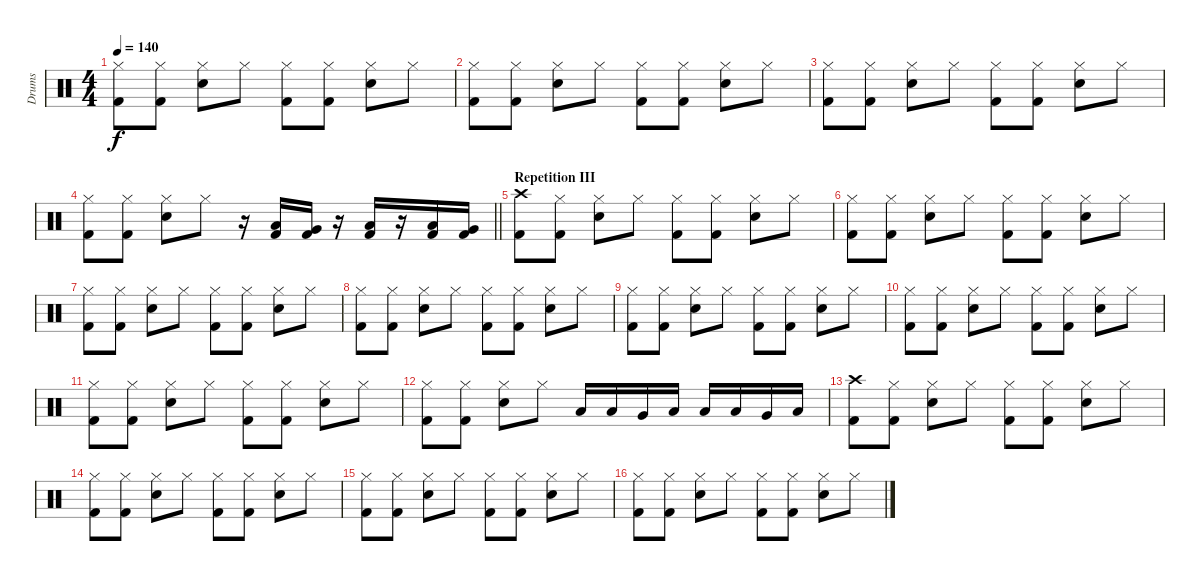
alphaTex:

\track ("Drums" "Drums") {instrument percussion}
\staff {score}
\articulation defaults
\ts (4 4)
\tempo 140
\clef neutral
\ks c
("Hi-Hat (closed)" "Kick (hit) 2").8{dy f} ("Hi-Hat (closed)" "Kick (hit) 2").8 ("Hi-Hat (closed)" "Snare (hit) 2").8 "Hi-Hat (closed)".8 ("Hi-Hat (closed)" "Kick (hit) 2").8 ("Hi-Hat (closed)" "Kick (hit) 2").8 ("Hi-Hat (closed)" "Snare (hit) 2").8 "Hi-Hat (closed)".8 |
("Hi-Hat (closed)" "Kick (hit) 2").8 ("Hi-Hat (closed)" "Kick (hit) 2").8 ("Hi-Hat (closed)" "Snare (hit) 2").8 "Hi-Hat (closed)".8 ("Hi-Hat (closed)" "Kick (hit) 2").8 ("Hi-Hat (closed)" "Kick (hit) 2").8 ("Hi-Hat (closed)" "Snare (hit) 2").8 "Hi-Hat (closed)".8 |
("Hi-Hat (closed)" "Kick (hit) 2").8 ("Hi-Hat (closed)" "Kick (hit) 2").8 ("Hi-Hat (closed)" "Snare (hit) 2").8 "Hi-Hat (closed)".8 ("Hi-Hat (closed)" "Kick (hit) 2").8 ("Hi-Hat (closed)" "Kick (hit) 2").8 ("Hi-Hat (closed)" "Snare (hit) 2").8 "Hi-Hat (closed)".8 |
\barLineRight lightlight
("Hi-Hat (closed)" "Kick (hit) 2").8 ("Hi-Hat (closed)" "Kick (hit) 2").8 ("Hi-Hat (closed)" "Snare (hit) 2").8 "Hi-Hat (closed)".8 r.16 ("Low Tom (hit)" "Kick (hit) 2").16 ("Very Low Tom (hit)" "Kick (hit) 2").16 r.16 ("Low Tom (hit)" "Kick (hit) 2").16 r.16 ("Low Tom (hit)" "Kick (hit) 2").16 ("Very Low Tom (hit)" "Kick (hit) 2").16 |
\section ("" "Repetition III")
("Crash high (hit)" "Kick (hit) 2").8 ("Hi-Hat (closed)" "Kick (hit) 2").8 ("Hi-Hat (closed)" "Snare (hit) 2").8 "Hi-Hat (closed)".8 ("Hi-Hat (closed)" "Kick (hit) 2").8 ("Hi-Hat (closed)" "Kick (hit) 2").8 ("Hi-Hat (closed)" "Snare (hit) 2").8 "Hi-Hat (closed)".8 |
("Hi-Hat (closed)" "Kick (hit) 2").8 ("Hi-Hat (closed)" "Kick (hit) 2").8 ("Hi-Hat (closed)" "Snare (hit) 2").8 "Hi-Hat (closed)".8 ("Hi-Hat (closed)" "Kick (hit) 2").8 ("Hi-Hat (closed)" "Kick (hit) 2").8 ("Hi-Hat (closed)" "Snare (hit) 2").8 "Hi-Hat (closed)".8 |
("Hi-Hat (closed)" "Kick (hit) 2").8 ("Hi-Hat (closed)" "Kick (hit) 2").8 ("Hi-Hat (closed)" "Snare (hit) 2").8 "Hi-Hat (closed)".8 ("Hi-Hat (closed)" "Kick (hit) 2").8 ("Hi-Hat (closed)" "Kick (hit) 2").8 ("Hi-Hat (closed)" "Snare (hit) 2").8 "Hi-Hat (closed)".8 |
("Hi-Hat (closed)" "Kick (hit) 2").8 ("Hi-Hat (closed)" "Kick (hit) 2").8 ("Hi-Hat (closed)" "Snare (hit) 2").8 "Hi-Hat (closed)".8 ("Hi-Hat (closed)" "Kick (hit) 2").8 ("Hi-Hat (closed)" "Kick (hit) 2").8 ("Hi-Hat (closed)" "Snare (hit) 2").8 "Hi-Hat (closed)".8 |
("Hi-Hat (closed)" "Kick (hit) 2").8 ("Hi-Hat (closed)" "Kick (hit) 2").8 ("Hi-Hat (closed)" "Snare (hit) 2").8 "Hi-Hat (closed)".8 ("Hi-Hat (closed)" "Kick (hit) 2").8 ("Hi-Hat (closed)" "Kick (hit) 2").8 ("Hi-Hat (closed)" "Snare (hit) 2").8 "Hi-Hat (closed)".8 |
("Hi-Hat (closed)" "Kick (hit) 2").8 ("Hi-Hat (closed)" "Kick (hit) 2").8 ("Hi-Hat (closed)" "Snare (hit) 2").8 "Hi-Hat (closed)".8 ("Hi-Hat (closed)" "Kick (hit) 2").8 ("Hi-Hat (closed)" "Kick (hit) 2").8 ("Hi-Hat (closed)" "Snare (hit) 2").8 "Hi-Hat (closed)".8 |
("Hi-Hat (closed)" "Kick (hit) 2").8 ("Hi-Hat (closed)" "Kick (hit) 2").8 ("Hi-Hat (closed)" "Snare (hit) 2").8 "Hi-Hat (closed)".8 ("Hi-Hat (closed)" "Kick (hit) 2").8 ("Hi-Hat (closed)" "Kick (hit) 2").8 ("Hi-Hat (closed)" "Snare (hit) 2").8 "Hi-Hat (closed)".8 |
("Hi-Hat (closed)" "Kick (hit) 2").8 ("Hi-Hat (closed)" "Kick (hit) 2").8 ("Hi-Hat (closed)" "Snare (hit) 2").8 "Hi-Hat (closed)".8 "Low Tom (hit)".16 "Low Tom (hit)".16 "Very Low Tom (hit)".16 "Low Floor Tom (hit)".16 "Low Tom (hit)".16 "Low Tom (hit)".16 "Very Low Tom (hit)".16 "Low Floor Tom (hit)".16 |
("Crash high (hit)" "Kick (hit) 2").8 ("Hi-Hat (closed)" "Kick (hit) 2").8 ("Hi-Hat (closed)" "Snare (hit) 2").8 "Hi-Hat (closed)".8 ("Hi-Hat (closed)" "Kick (hit) 2").8 ("Hi-Hat (closed)" "Kick (hit) 2").8 ("Hi-Hat (closed)" "Snare (hit) 2").8 "Hi-Hat (closed)".8 |
("Hi-Hat (closed)" "Kick (hit) 2").8 ("Hi-Hat (closed)" "Kick (hit) 2").8 ("Hi-Hat (closed)" "Snare (hit) 2").8 "Hi-Hat (closed)".8 ("Hi-Hat (closed)" "Kick (hit) 2").8 ("Hi-Hat (closed)" "Kick (hit) 2").8 ("Hi-Hat (closed)" "Snare (hit) 2").8 "Hi-Hat (closed)".8 |
("Hi-Hat (closed)" "Kick (hit) 2").8 ("Hi-Hat (closed)" "Kick (hit) 2").8 ("Hi-Hat (closed)" "Snare (hit) 2").8 "Hi-Hat (closed)".8 ("Hi-Hat (closed)" "Kick (hit) 2").8 ("Hi-Hat (closed)" "Kick (hit) 2").8 ("Hi-Hat (closed)" "Snare (hit) 2").8 "Hi-Hat (closed)".8 |
("Hi-Hat (closed)" "Kick (hit) 2").8 ("Hi-Hat (closed)" "Kick (hit) 2").8 ("Hi-Hat (closed)" "Snare (hit) 2").8 "Hi-Hat (closed)".8 ("Hi-Hat (closed)" "Kick (hit) 2").8 ("Hi-Hat (closed)" "Kick (hit) 2").8 ("Hi-Hat (closed)" "Snare (hit) 2").8 "Hi-Hat (closed)".8
